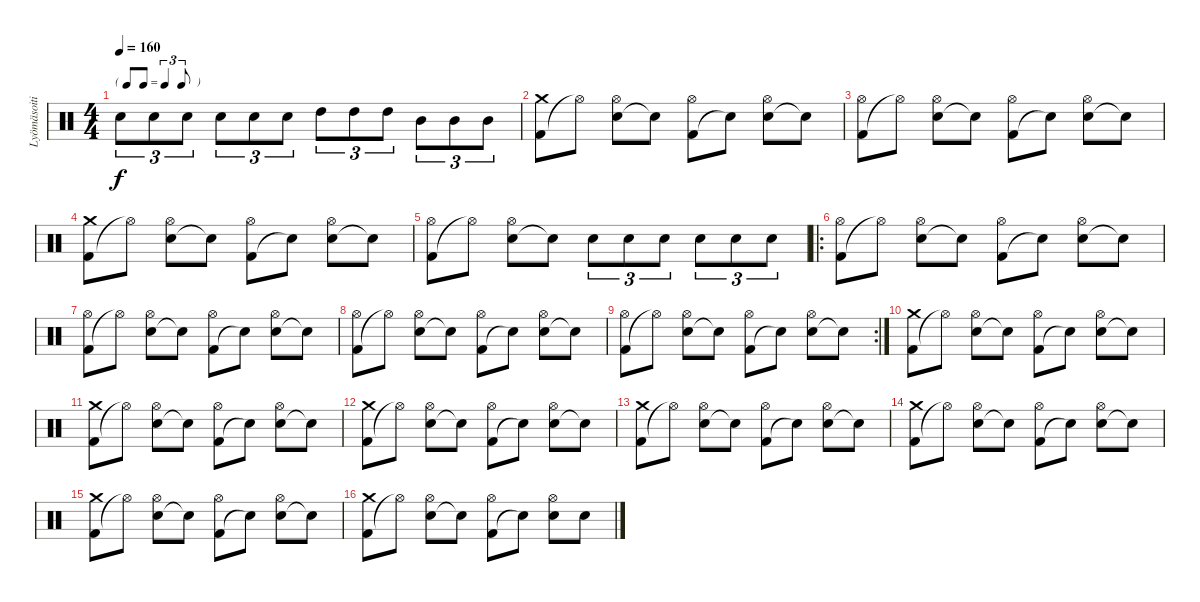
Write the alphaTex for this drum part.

\track ("Lyömäsoitin" "Lyömäsoiti") {instrument percussion}
\staff {score}
\articulation defaults
\ts (4 4)
\tf triplet8th
\tempo 160
\clef neutral
\ks c "Electric Snare (hit)".8{tu (3 2) dy f} "Electric Snare (hit)".8{tu (3 2)} "Electric Snare (hit)".8{tu (3 2)} "Electric Snare (hit)".8{tu (3 2)} "Electric Snare (hit)".8{tu (3 2)} "Electric Snare (hit)".8{tu (3 2)} "High Tom (hit)".8{tu (3 2)} "High Tom (hit)".8{tu (3 2)} "High Tom (hit)".8{tu (3 2)} "Mid Tom (hit)".8{tu (3 2)} "Mid Tom (hit)".8{tu (3 2)} "Mid Tom (hit)".8{tu (3 2)}
|
("Kick (hit) 2" "Crash medium (hit)").8 "Hi-Hat (open)"{t}.8 ("Electric Snare (hit)" "Hi-Hat (open)").8 "Snare (hit)"{t}.8 ("Kick (hit) 2" "Hi-Hat (open)").8 "Snare (hit)"{t}.8 ("Electric Snare (hit)" "Hi-Hat (open)").8 "Snare (hit)"{t}.8 |
("Kick (hit) 2" "Hi-Hat (open)").8 "Hi-Hat (open)"{t}.8 ("Electric Snare (hit)" "Hi-Hat (open)").8 "Snare (hit)"{t}.8 ("Kick (hit) 2" "Hi-Hat (open)").8 "Snare (hit)"{t}.8 ("Electric Snare (hit)" "Hi-Hat (open)").8 "Snare (hit)"{t}.8 |
("Kick (hit) 2" "Crash medium (hit)").8 "Hi-Hat (open)"{t}.8 ("Electric Snare (hit)" "Hi-Hat (open)").8 "Snare (hit)"{t}.8 ("Kick (hit) 2" "Hi-Hat (open)").8 "Snare (hit)"{t}.8 ("Electric Snare (hit)" "Hi-Hat (open)").8 "Snare (hit)"{t}.8 |
("Kick (hit) 2" "Hi-Hat (open)").8 "Hi-Hat (open)"{t}.8 ("Electric Snare (hit)" "Hi-Hat (open)").8 "Snare (hit)"{t}.8 "Electric Snare (hit)".8{tu (3 2)} "Electric Snare (hit)".8{tu (3 2)} "Electric Snare (hit)".8{tu (3 2)} "Electric Snare (hit)".8{tu (3 2)} "Electric Snare (hit)".8{tu (3 2)} "Electric Snare (hit)".8{tu (3 2)} |
\ro
("Kick (hit) 2" "Hi-Hat (open)").8 "Hi-Hat (open)"{t}.8 ("Electric Snare (hit)" "Hi-Hat (open)").8 "Snare (hit)"{t}.8 ("Kick (hit) 2" "Hi-Hat (open)").8 "Snare (hit)"{t}.8 ("Electric Snare (hit)" "Hi-Hat (open)").8 "Snare (hit)"{t}.8 |
("Kick (hit) 2" "Hi-Hat (open)").8 "Hi-Hat (open)"{t}.8 ("Electric Snare (hit)" "Hi-Hat (open)").8 "Snare (hit)"{t}.8 ("Kick (hit) 2" "Hi-Hat (open)").8 "Snare (hit)"{t}.8 ("Electric Snare (hit)" "Hi-Hat (open)").8 "Snare (hit)"{t}.8 |
("Kick (hit) 2" "Hi-Hat (open)").8 "Hi-Hat (open)"{t}.8 ("Electric Snare (hit)" "Hi-Hat (open)").8 "Snare (hit)"{t}.8 ("Kick (hit) 2" "Hi-Hat (open)").8 "Snare (hit)"{t}.8 ("Electric Snare (hit)" "Hi-Hat (open)").8 "Snare (hit)"{t}.8 |
\rc 2
("Kick (hit) 2" "Hi-Hat (open)").8 "Hi-Hat (open)"{t}.8 ("Electric Snare (hit)" "Hi-Hat (open)").8 "Snare (hit)"{t}.8 ("Kick (hit) 2" "Hi-Hat (open)").8 "Snare (hit)"{t}.8 ("Electric Snare (hit)" "Hi-Hat (open)").8 "Snare (hit)"{t}.8 |
("Kick (hit) 2" "Crash medium (hit)").8 "Hi-Hat (open)"{t}.8 ("Electric Snare (hit)" "Hi-Hat (open)").8 "Snare (hit)"{t}.8 ("Kick (hit) 2" "Hi-Hat (open)").8 "Snare (hit)"{t}.8 ("Electric Snare (hit)" "Hi-Hat (open)").8 "Snare (hit)"{t}.8 |
("Kick (hit) 2" "Crash medium (hit)").8 "Hi-Hat (open)"{t}.8 ("Electric Snare (hit)" "Hi-Hat (open)").8 "Snare (hit)"{t}.8 ("Kick (hit) 2" "Hi-Hat (open)").8 "Snare (hit)"{t}.8 ("Electric Snare (hit)" "Hi-Hat (open)").8 "Snare (hit)"{t}.8 |
("Kick (hit) 2" "Crash medium (hit)").8 "Hi-Hat (open)"{t}.8 ("Electric Snare (hit)" "Hi-Hat (open)").8 "Snare (hit)"{t}.8 ("Kick (hit) 2" "Hi-Hat (open)").8 "Snare (hit)"{t}.8 ("Electric Snare (hit)" "Hi-Hat (open)").8 "Snare (hit)"{t}.8 |
("Kick (hit) 2" "Crash medium (hit)").8 "Hi-Hat (open)"{t}.8 ("Electric Snare (hit)" "Hi-Hat (open)").8 "Snare (hit)"{t}.8 ("Kick (hit) 2" "Hi-Hat (open)").8 "Snare (hit)"{t}.8 ("Electric Snare (hit)" "Hi-Hat (open)").8 "Snare (hit)"{t}.8 |
("Kick (hit) 2" "Crash medium (hit)").8 "Hi-Hat (open)"{t}.8 ("Electric Snare (hit)" "Hi-Hat (open)").8 "Snare (hit)"{t}.8 ("Kick (hit) 2" "Hi-Hat (open)").8 "Snare (hit)"{t}.8 ("Electric Snare (hit)" "Hi-Hat (open)").8 "Snare (hit)"{t}.8 |
("Kick (hit) 2" "Crash medium (hit)").8 "Hi-Hat (open)"{t}.8 ("Electric Snare (hit)" "Hi-Hat (open)").8 "Snare (hit)"{t}.8 ("Kick (hit) 2" "Hi-Hat (open)").8 "Snare (hit)"{t}.8 ("Electric Snare (hit)" "Hi-Hat (open)").8 "Snare (hit)"{t}.8 |
("Kick (hit) 2" "Crash medium (hit)").8 "Hi-Hat (open)"{t}.8 ("Electric Snare (hit)" "Hi-Hat (open)").8 "Snare (hit)"{t}.8 ("Kick (hit) 2" "Hi-Hat (open)").8 "Snare (hit)"{t}.8 ("Electric Snare (hit)" "Hi-Hat (open)").8 "Electric Snare (hit)".8
